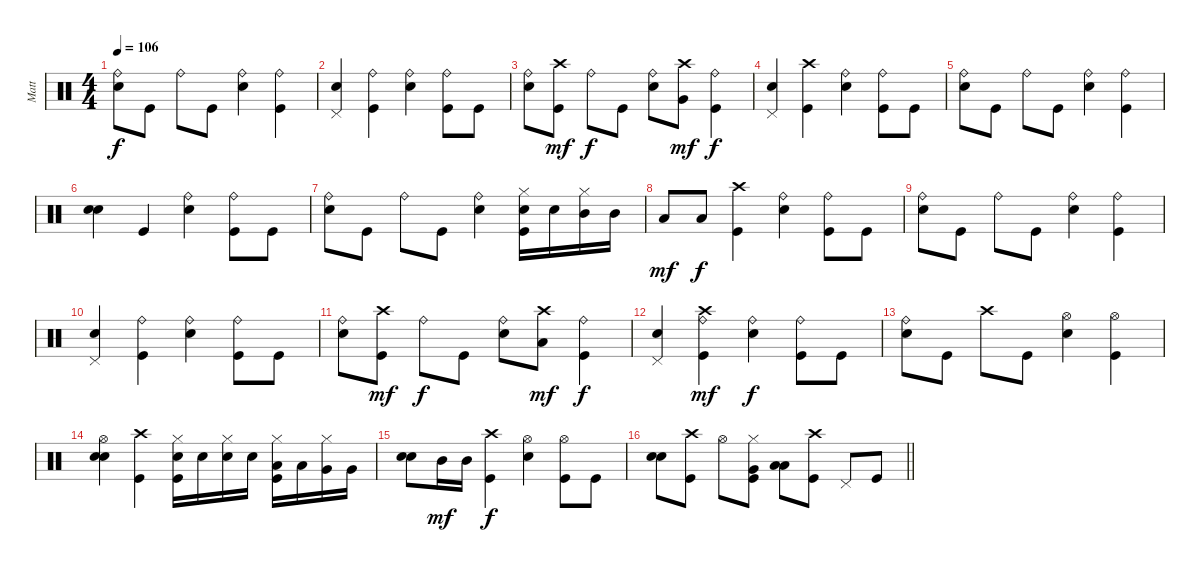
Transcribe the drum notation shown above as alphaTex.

\track ("Matt" "Matt") {instrument percussion}
\staff {score}
\articulation defaults
\ts (4 4)
\tempo 106
\clef neutral
\ks c
("Electric Snare (hit)" "Ride (bell)").8{dy f} "Kick (hit)".8 "Ride (bell)".8 "Kick (hit)".8 ("Electric Snare (hit)" "Ride (bell)").4 ("Ride (bell)" "Kick (hit)").4 |
("Electric Snare (hit)" "Pedal Hi-Hat (hit)").4 ("Ride (bell)" "Kick (hit)").4 ("Electric Snare (hit)" "Ride (bell)").4 ("Ride (bell)" "Kick (hit)").8 "Kick (hit)".8 |
("Electric Snare (hit)" "Ride (bell)").8 ("Crash high (hit)" "Kick (hit)").8{dy mf} "Ride (bell)".8{dy f} "Kick (hit)".8 ("Electric Snare (hit)" "Ride (bell)").8 ("Crash high (hit)" "Very Low Tom (hit)").8{dy mf} ("Ride (bell)" "Kick (hit)").4{dy f} |
("Electric Snare (hit)" "Pedal Hi-Hat (hit)").4 ("Crash high (hit)" "Kick (hit)").4 ("Electric Snare (hit)" "Ride (bell)").4 ("Ride (bell)" "Kick (hit)").8 "Kick (hit)".8 |
("Electric Snare (hit)" "Ride (bell)").8 "Kick (hit)".8 "Ride (bell)".8 "Kick (hit)".8 ("Electric Snare (hit)" "Ride (bell)").4 ("Ride (bell)" "Kick (hit)").4 |
("Electric Snare (hit)" "Electric Snare (hit)").4 "Kick (hit)".4 ("Electric Snare (hit)" "Ride (bell)").4 ("Ride (bell)" "Kick (hit)").8 "Kick (hit)".8 |
("Electric Snare (hit)" "Ride (bell)").8 "Kick (hit)".8 "Ride (bell)".8 "Kick (hit)".8 ("Electric Snare (hit)" "Ride (bell)").4 ("Hi-Hat (closed)" "Electric Snare (hit)" "Kick (hit)").16 "Electric Snare (hit)".16 ("Hi-Hat (closed)" "Mid Tom (hit)").16 "Mid Tom (hit)".16 |
"Low Floor Tom (hit)".8{dy mf} "Low Floor Tom (hit)".8{dy f} ("Crash high (hit)" "Kick (hit)").4 ("Electric Snare (hit)" "Ride (bell)").4 ("Ride (bell)" "Kick (hit)").8 "Kick (hit)".8 |
("Electric Snare (hit)" "Ride (bell)").8 "Kick (hit)".8 "Ride (bell)".8 "Kick (hit)".8 ("Electric Snare (hit)" "Ride (bell)").4 ("Ride (bell)" "Kick (hit)").4 |
("Electric Snare (hit)" "Pedal Hi-Hat (hit)").4 ("Ride (bell)" "Kick (hit)").4 ("Electric Snare (hit)" "Ride (bell)").4 ("Ride (bell)" "Kick (hit)").8 "Kick (hit)".8 |
("Electric Snare (hit)" "Ride (bell)").8 ("Crash high (hit)" "Kick (hit)").8{dy mf} "Ride (bell)".8{dy f} "Kick (hit)".8 ("Electric Snare (hit)" "Ride (bell)").8 ("Crash high (hit)" "Low Floor Tom (hit)").8{dy mf} ("Ride (bell)" "Kick (hit)").4{dy f} |
("Electric Snare (hit)" "Pedal Hi-Hat (hit)").4 ("Crash high (hit)" "Ride (bell)" "Kick (hit)").4{dy mf} ("Electric Snare (hit)" "Ride (bell)").4{dy f} ("Ride (bell)" "Kick (hit)").8 "Kick (hit)".8 |
("Electric Snare (hit)" "Ride (bell)").8 "Kick (hit)".8 "Crash high (hit)".8 "Kick (hit)".8 ("Electric Snare (hit)" "Hi-Hat (open)").4 ("Hi-Hat (open)" "Kick (hit)").4 |
("Hi-Hat (open)" "Electric Snare (hit)" "Electric Snare (hit)").4 ("Crash high (hit)" "Kick (hit)").4 ("Electric Snare (hit)" "Hi-Hat (closed)" "Kick (hit)").16 "Electric Snare (hit)".16 ("Electric Snare (hit)" "Hi-Hat (closed)").16 "Electric Snare (hit)".16 ("Low Tom (hit)" "Hi-Hat (closed)" "Kick (hit)").16 "Low Tom (hit)".16 ("Very Low Tom (hit)" "Hi-Hat (closed)").16 "Very Low Tom (hit)".16 |
("Electric Snare (hit)" "Electric Snare (hit)").8 "Mid Tom (hit)".16{dy mf} "Mid Tom (hit)".16 ("Crash high (hit)" "Kick (hit)").4{dy f} ("Electric Snare (hit)" "Hi-Hat (open)").4 ("Hi-Hat (open)" "Kick (hit)").8 "Kick (hit)".8 |
\barLineRight lightlight
("Electric Snare (hit)" "Electric Snare (hit)").8 ("Crash high (hit)" "Kick (hit)").8 "Hi-Hat (open)".8 ("Hi-Hat (closed)" "Very Low Tom (hit)" "Kick (hit)").8 ("Low Floor Tom (hit)" "Low Floor Tom (hit)").8 ("Crash high (hit)" "Kick (hit)").8 "Pedal Hi-Hat (hit)".8 "Kick (hit)".8
